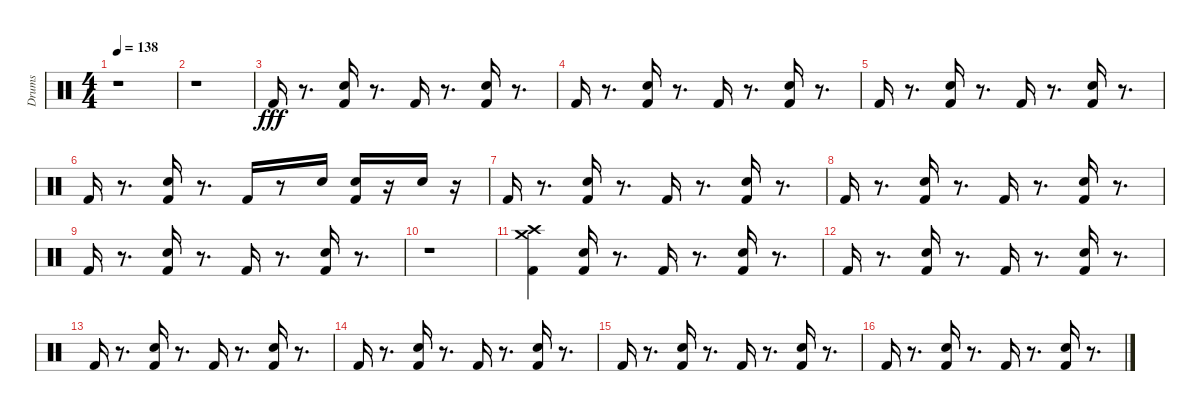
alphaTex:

\track ("Drums" "Drums") {instrument percussion}
\staff {score}
\articulation defaults
\ts (4 4)
\tempo 138
\clef neutral
\ks c
r.1{dy fff} |
r.1 |
"Kick (hit) 2".16 r.8{d} ("Kick (hit) 2" "Hand Clap (hit)").16 r.8{d} "Kick (hit) 2".16 r.8{d} ("Kick (hit) 2" "Hand Clap (hit)").16 r.8{d} |
"Kick (hit) 2".16 r.8{d} ("Kick (hit) 2" "Hand Clap (hit)").16 r.8{d} "Kick (hit) 2".16 r.8{d} ("Kick (hit) 2" "Hand Clap (hit)").16 r.8{d} |
"Kick (hit) 2".16 r.8{d} ("Kick (hit) 2" "Hand Clap (hit)").16 r.8{d} "Kick (hit) 2".16 r.8{d} ("Kick (hit) 2" "Hand Clap (hit)").16 r.8{d} |
"Kick (hit) 2".16 r.8{d} ("Kick (hit) 2" "Hand Clap (hit)").16 r.8{d} "Kick (hit) 2".16 r.8 "Hand Clap (hit)".16 ("Kick (hit) 2" "Hand Clap (hit)").16 r.16 "Hand Clap (hit)".16 r.16 |
"Kick (hit) 2".16 r.8{d} ("Kick (hit) 2" "Hand Clap (hit)").16 r.8{d} "Kick (hit) 2".16 r.8{d} ("Kick (hit) 2" "Hand Clap (hit)").16 r.8{d} |
"Kick (hit) 2".16 r.8{d} ("Kick (hit) 2" "Hand Clap (hit)").16 r.8{d} "Kick (hit) 2".16 r.8{d} ("Kick (hit) 2" "Hand Clap (hit)").16 r.8{d} |
"Kick (hit) 2".16 r.8{d} ("Kick (hit) 2" "Hand Clap (hit)").16 r.8{d} "Kick (hit) 2".16 r.8{d} ("Kick (hit) 2" "Hand Clap (hit)").16 r.8{d} |
r.1 |
("Kick (hit) 2" "Crash high (hit)" "Crash medium (hit)").4 ("Kick (hit) 2" "Hand Clap (hit)").16 r.8{d} "Kick (hit) 2".16 r.8{d} ("Kick (hit) 2" "Hand Clap (hit)").16 r.8{d} |
"Kick (hit) 2".16 r.8{d} ("Kick (hit) 2" "Hand Clap (hit)").16 r.8{d} "Kick (hit) 2".16 r.8{d} ("Kick (hit) 2" "Hand Clap (hit)").16 r.8{d} |
"Kick (hit) 2".16 r.8{d} ("Kick (hit) 2" "Hand Clap (hit)").16 r.8{d} "Kick (hit) 2".16 r.8{d} ("Kick (hit) 2" "Hand Clap (hit)").16 r.8{d} |
"Kick (hit) 2".16 r.8{d} ("Kick (hit) 2" "Hand Clap (hit)").16 r.8{d} "Kick (hit) 2".16 r.8{d} ("Kick (hit) 2" "Hand Clap (hit)").16 r.8{d} |
"Kick (hit) 2".16 r.8{d} ("Kick (hit) 2" "Hand Clap (hit)").16 r.8{d} "Kick (hit) 2".16 r.8{d} ("Kick (hit) 2" "Hand Clap (hit)").16 r.8{d} |
"Kick (hit) 2".16 r.8{d} ("Kick (hit) 2" "Hand Clap (hit)").16 r.8{d} "Kick (hit) 2".16 r.8{d} ("Kick (hit) 2" "Hand Clap (hit)").16 r.8{d}
